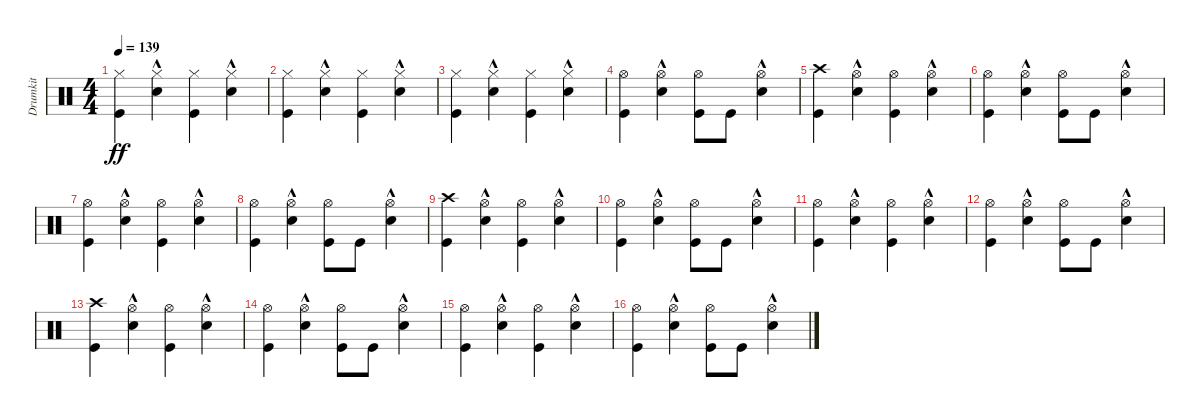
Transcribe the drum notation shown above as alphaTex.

\track ("Drumkit" "Drumkit") {instrument percussion}
\staff {score}
\articulation defaults
\ts (4 4)
\tempo 139
\clef neutral
\ks c
("Kick (hit)" "Hi-Hat (closed)").4{dy ff} ("Snare (hit) 2"{hac} "Hi-Hat (closed)").4 ("Kick (hit)" "Hi-Hat (closed)").4 ("Snare (hit) 2"{hac} "Hi-Hat (closed)").4 |
("Hi-Hat (closed)" "Kick (hit)").4 ("Hi-Hat (closed)" "Snare (hit) 2"{hac}).4 ("Hi-Hat (closed)" "Kick (hit)").4 ("Hi-Hat (closed)" "Snare (hit) 2"{hac}).4 |
("Hi-Hat (closed)" "Kick (hit)").4 ("Hi-Hat (closed)" "Snare (hit) 2"{hac}).4 ("Hi-Hat (closed)" "Kick (hit)").4 ("Hi-Hat (closed)" "Snare (hit) 2"{hac}).4 |
("Hi-Hat (open)" "Kick (hit)").4 ("Snare (hit) 2"{hac} "Hi-Hat (open)").4 ("Hi-Hat (open)" "Kick (hit)").8 "Kick (hit)".8 ("Snare (hit) 2"{hac} "Hi-Hat (open)").4 |
("Kick (hit)" "Crash high (hit)").4 ("Snare (hit) 2"{hac} "Hi-Hat (open)").4 ("Kick (hit)" "Hi-Hat (open)").4 ("Snare (hit) 2"{hac} "Hi-Hat (open)").4 |
("Hi-Hat (open)" "Kick (hit)").4 ("Hi-Hat (open)" "Snare (hit) 2"{hac}).4 ("Hi-Hat (open)" "Kick (hit)").8 "Kick (hit)".8 ("Hi-Hat (open)" "Snare (hit) 2"{hac}).4 |
("Hi-Hat (open)" "Kick (hit)").4 ("Hi-Hat (open)" "Snare (hit) 2"{hac}).4 ("Hi-Hat (open)" "Kick (hit)").4 ("Hi-Hat (open)" "Snare (hit) 2"{hac}).4 |
("Hi-Hat (open)" "Kick (hit)").4 ("Snare (hit) 2"{hac} "Hi-Hat (open)").4 ("Hi-Hat (open)" "Kick (hit)").8 "Kick (hit)".8 ("Snare (hit) 2"{hac} "Hi-Hat (open)").4 |
("Kick (hit)" "Crash high (hit)").4 ("Snare (hit) 2"{hac} "Hi-Hat (open)").4 ("Kick (hit)" "Hi-Hat (open)").4 ("Snare (hit) 2"{hac} "Hi-Hat (open)").4 |
("Hi-Hat (open)" "Kick (hit)").4 ("Hi-Hat (open)" "Snare (hit) 2"{hac}).4 ("Hi-Hat (open)" "Kick (hit)").8 "Kick (hit)".8 ("Hi-Hat (open)" "Snare (hit) 2"{hac}).4 |
("Hi-Hat (open)" "Kick (hit)").4 ("Hi-Hat (open)" "Snare (hit) 2"{hac}).4 ("Hi-Hat (open)" "Kick (hit)").4 ("Hi-Hat (open)" "Snare (hit) 2"{hac}).4 |
("Hi-Hat (open)" "Kick (hit)").4 ("Snare (hit) 2"{hac} "Hi-Hat (open)").4 ("Hi-Hat (open)" "Kick (hit)").8 "Kick (hit)".8 ("Snare (hit) 2"{hac} "Hi-Hat (open)").4 |
("Kick (hit)" "Crash high (hit)").4 ("Snare (hit) 2"{hac} "Hi-Hat (open)").4 ("Kick (hit)" "Hi-Hat (open)").4 ("Snare (hit) 2"{hac} "Hi-Hat (open)").4 |
("Hi-Hat (open)" "Kick (hit)").4 ("Hi-Hat (open)" "Snare (hit) 2"{hac}).4 ("Hi-Hat (open)" "Kick (hit)").8 "Kick (hit)".8 ("Hi-Hat (open)" "Snare (hit) 2"{hac}).4 |
("Kick (hit)" "Hi-Hat (open)").4 ("Hi-Hat (open)" "Snare (hit) 2"{hac}).4 ("Hi-Hat (open)" "Kick (hit)").4 ("Hi-Hat (open)" "Snare (hit) 2"{hac}).4 |
("Hi-Hat (open)" "Kick (hit)").4 ("Snare (hit) 2"{hac} "Hi-Hat (open)").4 ("Hi-Hat (open)" "Kick (hit)").8 "Kick (hit)".8 ("Snare (hit) 2"{hac} "Hi-Hat (open)").4
